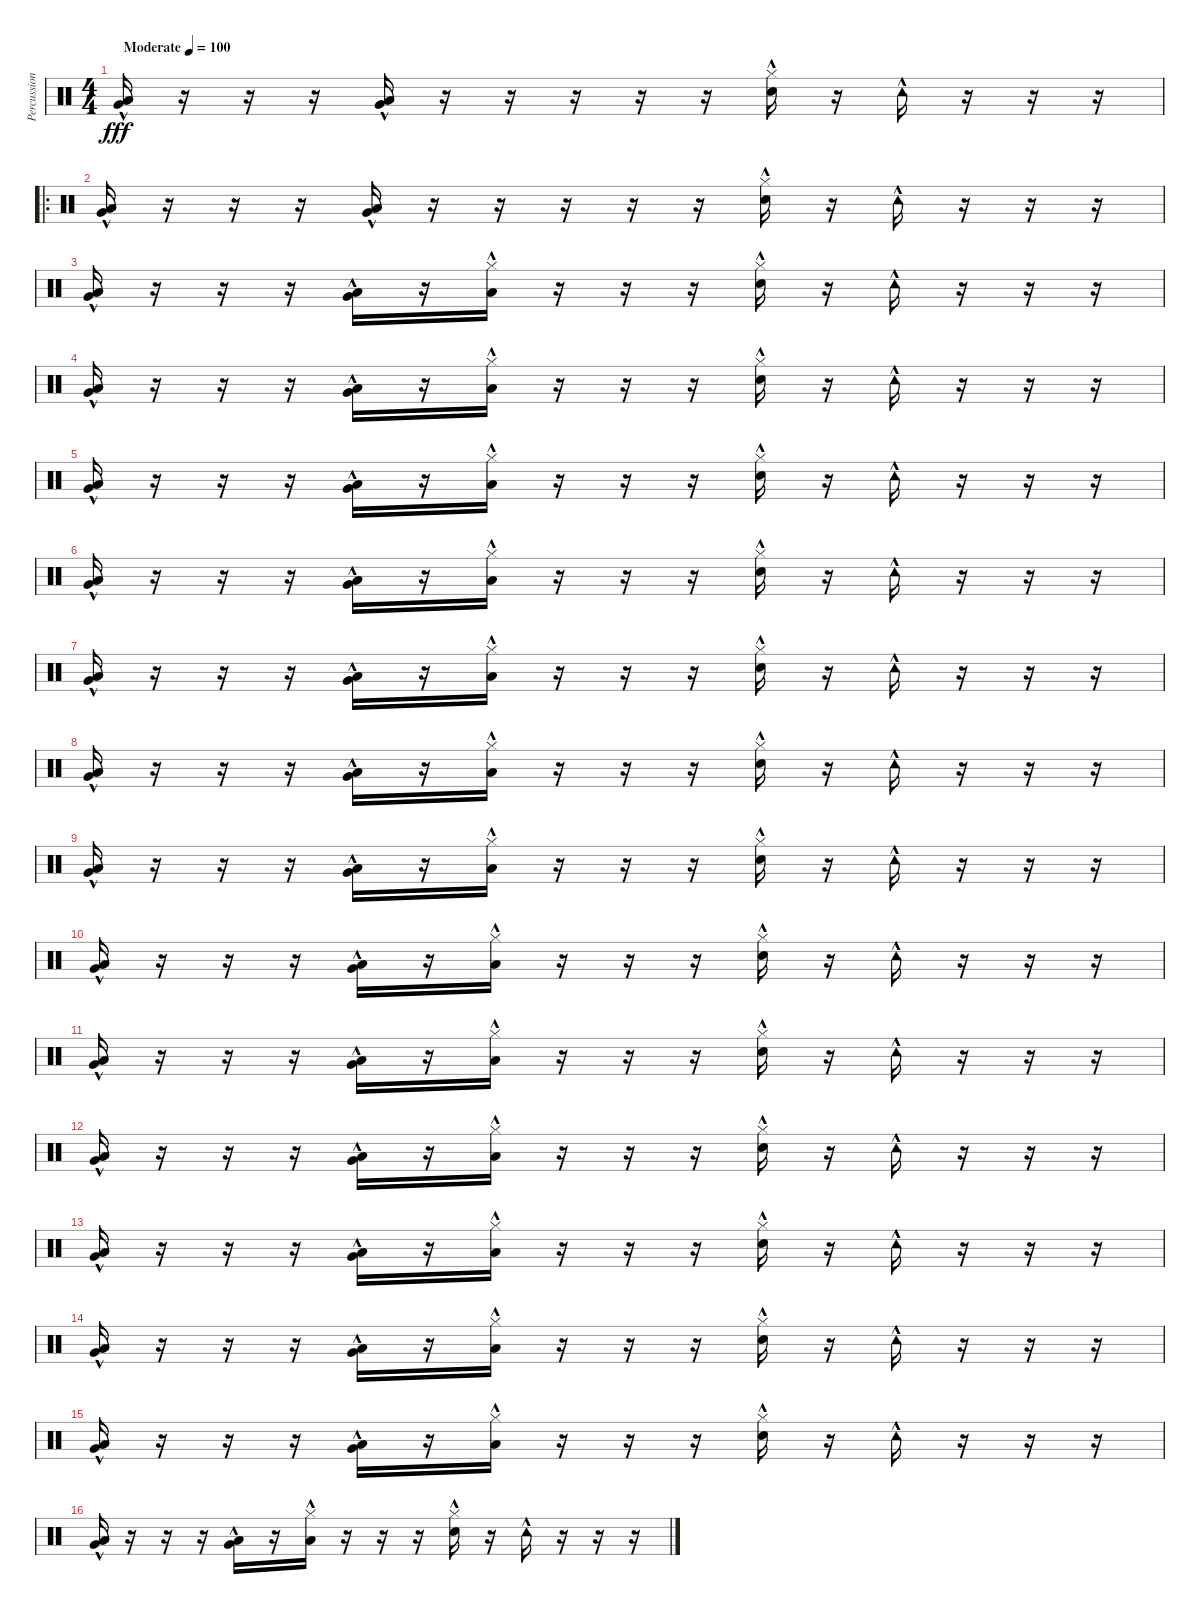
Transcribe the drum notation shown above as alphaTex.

\track ("Percussion" "Percussion") {instrument percussion}
\staff {score}
\articulation defaults
\ts (4 4)
\tempo (100 "Moderate")
\clef neutral
\ks c
("Low Floor Tom (hit)"{hac} "Very Low Tom (hit)"{hac}).16{dy fff volume 5} r.16{volume 16} r.16 r.16 ("Low Floor Tom (hit)"{hac} "Very Low Tom (hit)"{hac}).16 r.16 r.16 r.16 r.16 r.16 ("Hi-Hat (closed)"{hac} "Hand Clap (hit)").16 r.16 "Tambourine (hit)"{hac}.16 r.16 r.16 r.16 |
\ro
("Low Floor Tom (hit)"{hac} "Very Low Tom (hit)"{hac}).16 r.16 r.16 r.16 ("Low Floor Tom (hit)"{hac} "Very Low Tom (hit)"{hac}).16 r.16 r.16 r.16 r.16 r.16 ("Hi-Hat (closed)"{hac} "Hand Clap (hit)").16 r.16 "Tambourine (hit)"{hac}.16 r.16 r.16 r.16 |
("Low Floor Tom (hit)"{hac} "Very Low Tom (hit)"{hac}).16 r.16 r.16 r.16 ("Low Floor Tom (hit)"{hac} "Very Low Tom (hit)"{hac}).16 r.16 ("Hi-Hat (closed)"{hac} "Low Tom (hit)"{hac}).16 r.16 r.16 r.16 ("Hi-Hat (closed)"{hac} "Hand Clap (hit)").16 r.16 "Tambourine (hit)"{hac}.16 r.16 r.16 r.16 |
("Low Floor Tom (hit)"{hac} "Very Low Tom (hit)"{hac}).16 r.16 r.16 r.16 ("Low Floor Tom (hit)"{hac} "Very Low Tom (hit)"{hac}).16 r.16 ("Hi-Hat (closed)"{hac} "Low Tom (hit)"{hac}).16 r.16 r.16 r.16 ("Hi-Hat (closed)"{hac} "Hand Clap (hit)").16 r.16 "Tambourine (hit)"{hac}.16 r.16 r.16 r.16 |
("Low Floor Tom (hit)"{hac} "Very Low Tom (hit)"{hac}).16 r.16 r.16 r.16 ("Low Floor Tom (hit)"{hac} "Very Low Tom (hit)"{hac}).16 r.16 ("Hi-Hat (closed)"{hac} "Low Tom (hit)"{hac}).16 r.16 r.16 r.16 ("Hi-Hat (closed)"{hac} "Hand Clap (hit)").16 r.16 "Tambourine (hit)"{hac}.16 r.16 r.16 r.16 |
("Low Floor Tom (hit)"{hac} "Very Low Tom (hit)"{hac}).16 r.16 r.16 r.16 ("Low Floor Tom (hit)"{hac} "Very Low Tom (hit)"{hac}).16 r.16 ("Hi-Hat (closed)"{hac} "Low Tom (hit)"{hac}).16 r.16 r.16 r.16 ("Hi-Hat (closed)"{hac} "Hand Clap (hit)").16 r.16 "Tambourine (hit)"{hac}.16 r.16 r.16 r.16 |
("Low Floor Tom (hit)"{hac} "Very Low Tom (hit)"{hac}).16 r.16 r.16 r.16 ("Low Floor Tom (hit)"{hac} "Very Low Tom (hit)"{hac}).16 r.16 ("Hi-Hat (closed)"{hac} "Low Tom (hit)"{hac}).16 r.16 r.16 r.16 ("Hi-Hat (closed)"{hac} "Hand Clap (hit)").16 r.16 "Tambourine (hit)"{hac}.16 r.16 r.16 r.16 |
("Low Floor Tom (hit)"{hac} "Very Low Tom (hit)"{hac}).16 r.16 r.16 r.16 ("Low Floor Tom (hit)"{hac} "Very Low Tom (hit)"{hac}).16 r.16 ("Hi-Hat (closed)"{hac} "Low Tom (hit)"{hac}).16 r.16 r.16 r.16 ("Hi-Hat (closed)"{hac} "Hand Clap (hit)").16 r.16 "Tambourine (hit)"{hac}.16 r.16 r.16 r.16 |
("Low Floor Tom (hit)"{hac} "Very Low Tom (hit)"{hac}).16 r.16 r.16 r.16 ("Low Floor Tom (hit)"{hac} "Very Low Tom (hit)"{hac}).16 r.16 ("Hi-Hat (closed)"{hac} "Low Tom (hit)"{hac}).16 r.16 r.16 r.16 ("Hi-Hat (closed)"{hac} "Hand Clap (hit)").16 r.16 "Tambourine (hit)"{hac}.16 r.16 r.16 r.16 |
("Low Floor Tom (hit)"{hac} "Very Low Tom (hit)"{hac}).16 r.16 r.16 r.16 ("Low Floor Tom (hit)"{hac} "Very Low Tom (hit)"{hac}).16 r.16 ("Hi-Hat (closed)"{hac} "Low Tom (hit)"{hac}).16 r.16 r.16 r.16 ("Hi-Hat (closed)"{hac} "Hand Clap (hit)").16 r.16 "Tambourine (hit)"{hac}.16 r.16 r.16 r.16 |
("Low Floor Tom (hit)"{hac} "Very Low Tom (hit)"{hac}).16 r.16 r.16 r.16 ("Low Floor Tom (hit)"{hac} "Very Low Tom (hit)"{hac}).16 r.16 ("Hi-Hat (closed)"{hac} "Low Tom (hit)"{hac}).16 r.16 r.16 r.16 ("Hi-Hat (closed)"{hac} "Hand Clap (hit)").16 r.16 "Tambourine (hit)"{hac}.16 r.16 r.16 r.16 |
("Low Floor Tom (hit)"{hac} "Very Low Tom (hit)"{hac}).16 r.16 r.16 r.16 ("Low Floor Tom (hit)"{hac} "Very Low Tom (hit)"{hac}).16 r.16 ("Hi-Hat (closed)"{hac} "Low Tom (hit)"{hac}).16 r.16 r.16 r.16 ("Hi-Hat (closed)"{hac} "Hand Clap (hit)").16 r.16 "Tambourine (hit)"{hac}.16 r.16 r.16 r.16 |
("Low Floor Tom (hit)"{hac} "Very Low Tom (hit)"{hac}).16 r.16 r.16 r.16 ("Low Floor Tom (hit)"{hac} "Very Low Tom (hit)"{hac}).16 r.16 ("Hi-Hat (closed)"{hac} "Low Tom (hit)"{hac}).16 r.16 r.16 r.16 ("Hi-Hat (closed)"{hac} "Hand Clap (hit)").16 r.16 "Tambourine (hit)"{hac}.16 r.16 r.16 r.16 |
("Low Floor Tom (hit)"{hac} "Very Low Tom (hit)"{hac}).16 r.16 r.16 r.16 ("Low Floor Tom (hit)"{hac} "Very Low Tom (hit)"{hac}).16 r.16 ("Hi-Hat (closed)"{hac} "Low Tom (hit)"{hac}).16 r.16 r.16 r.16 ("Hi-Hat (closed)"{hac} "Hand Clap (hit)").16 r.16 "Tambourine (hit)"{hac}.16 r.16 r.16 r.16 |
("Low Floor Tom (hit)"{hac} "Very Low Tom (hit)"{hac}).16 r.16 r.16 r.16 ("Low Floor Tom (hit)"{hac} "Very Low Tom (hit)"{hac}).16 r.16 ("Hi-Hat (closed)"{hac} "Low Tom (hit)"{hac}).16 r.16 r.16 r.16 ("Hi-Hat (closed)"{hac} "Hand Clap (hit)").16 r.16 "Tambourine (hit)"{hac}.16 r.16 r.16 r.16 |
("Low Floor Tom (hit)"{hac} "Very Low Tom (hit)"{hac}).16 r.16 r.16 r.16 ("Low Floor Tom (hit)"{hac} "Very Low Tom (hit)"{hac}).16 r.16 ("Hi-Hat (closed)"{hac} "Low Tom (hit)"{hac}).16 r.16 r.16 r.16 ("Hi-Hat (closed)"{hac} "Hand Clap (hit)").16 r.16 "Tambourine (hit)"{hac}.16 r.16 r.16 r.16
